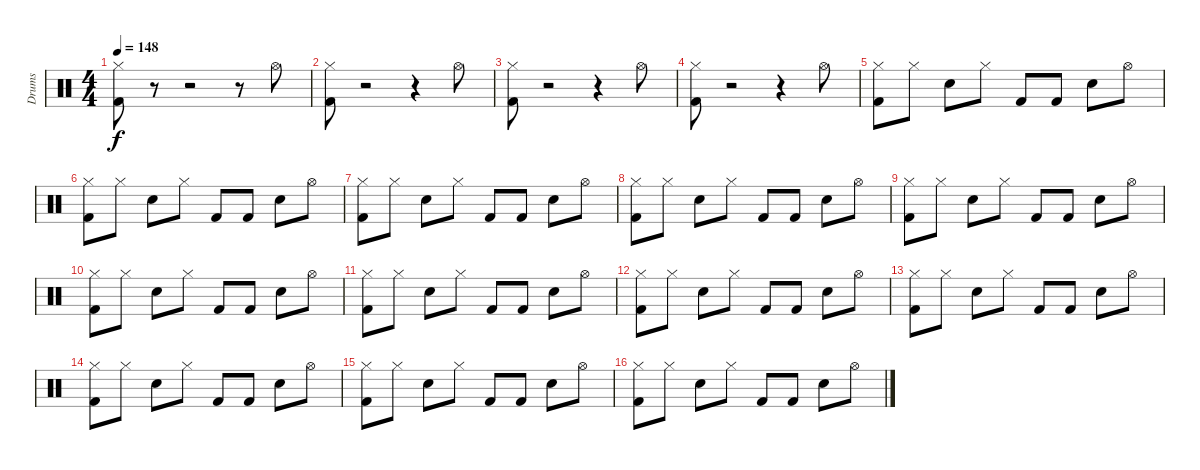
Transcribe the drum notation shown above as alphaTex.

\track ("Drums" "Drums") {instrument percussion}
\staff {score}
\articulation defaults
\ts (4 4)
\tempo 148
\clef neutral
\ks c
("Hi-Hat (closed)" "Kick (hit) 2").8{dy f} r.8 r.2 r.8 "Hi-Hat (open)".8 |
("Hi-Hat (closed)" "Kick (hit) 2").8 r.2 r.4 "Hi-Hat (open)".8 |
("Hi-Hat (closed)" "Kick (hit) 2").8 r.2 r.4 "Hi-Hat (open)".8 |
("Hi-Hat (closed)" "Kick (hit) 2").8 r.2 r.4 "Hi-Hat (open)".8 |
("Hi-Hat (closed)" "Kick (hit) 2").8 "Hi-Hat (closed)".8 "Snare (hit) 2".8 "Hi-Hat (closed)".8 "Kick (hit) 2".8 "Kick (hit) 2".8 "Snare (hit) 2".8 "Hi-Hat (open)".8 |
("Hi-Hat (closed)" "Kick (hit) 2").8 "Hi-Hat (closed)".8 "Snare (hit) 2".8 "Hi-Hat (closed)".8 "Kick (hit) 2".8 "Kick (hit) 2".8 "Snare (hit) 2".8 "Hi-Hat (open)".8 |
("Hi-Hat (closed)" "Kick (hit) 2").8 "Hi-Hat (closed)".8 "Snare (hit) 2".8 "Hi-Hat (closed)".8 "Kick (hit) 2".8 "Kick (hit) 2".8 "Snare (hit) 2".8 "Hi-Hat (open)".8 |
("Hi-Hat (closed)" "Kick (hit) 2").8 "Hi-Hat (closed)".8 "Snare (hit) 2".8 "Hi-Hat (closed)".8 "Kick (hit) 2".8 "Kick (hit) 2".8 "Snare (hit) 2".8 "Hi-Hat (open)".8 |
("Hi-Hat (closed)" "Kick (hit) 2").8 "Hi-Hat (closed)".8 "Snare (hit) 2".8 "Hi-Hat (closed)".8 "Kick (hit) 2".8 "Kick (hit) 2".8 "Snare (hit) 2".8 "Hi-Hat (open)".8 |
("Hi-Hat (closed)" "Kick (hit) 2").8 "Hi-Hat (closed)".8 "Snare (hit) 2".8 "Hi-Hat (closed)".8 "Kick (hit) 2".8 "Kick (hit) 2".8 "Snare (hit) 2".8 "Hi-Hat (open)".8 |
("Hi-Hat (closed)" "Kick (hit) 2").8 "Hi-Hat (closed)".8 "Snare (hit) 2".8 "Hi-Hat (closed)".8 "Kick (hit) 2".8 "Kick (hit) 2".8 "Snare (hit) 2".8 "Hi-Hat (open)".8 |
("Hi-Hat (closed)" "Kick (hit) 2").8 "Hi-Hat (closed)".8 "Snare (hit) 2".8 "Hi-Hat (closed)".8 "Kick (hit) 2".8 "Kick (hit) 2".8 "Snare (hit) 2".8 "Hi-Hat (open)".8 |
("Hi-Hat (closed)" "Kick (hit) 2").8 "Hi-Hat (closed)".8 "Snare (hit) 2".8 "Hi-Hat (closed)".8 "Kick (hit) 2".8 "Kick (hit) 2".8 "Snare (hit) 2".8 "Hi-Hat (open)".8 |
("Hi-Hat (closed)" "Kick (hit) 2").8 "Hi-Hat (closed)".8 "Snare (hit) 2".8 "Hi-Hat (closed)".8 "Kick (hit) 2".8 "Kick (hit) 2".8 "Snare (hit) 2".8 "Hi-Hat (open)".8 |
("Hi-Hat (closed)" "Kick (hit) 2").8 "Hi-Hat (closed)".8 "Snare (hit) 2".8 "Hi-Hat (closed)".8 "Kick (hit) 2".8 "Kick (hit) 2".8 "Snare (hit) 2".8 "Hi-Hat (open)".8 |
("Hi-Hat (closed)" "Kick (hit) 2").8 "Hi-Hat (closed)".8 "Snare (hit) 2".8 "Hi-Hat (closed)".8 "Kick (hit) 2".8 "Kick (hit) 2".8 "Snare (hit) 2".8 "Hi-Hat (open)".8
